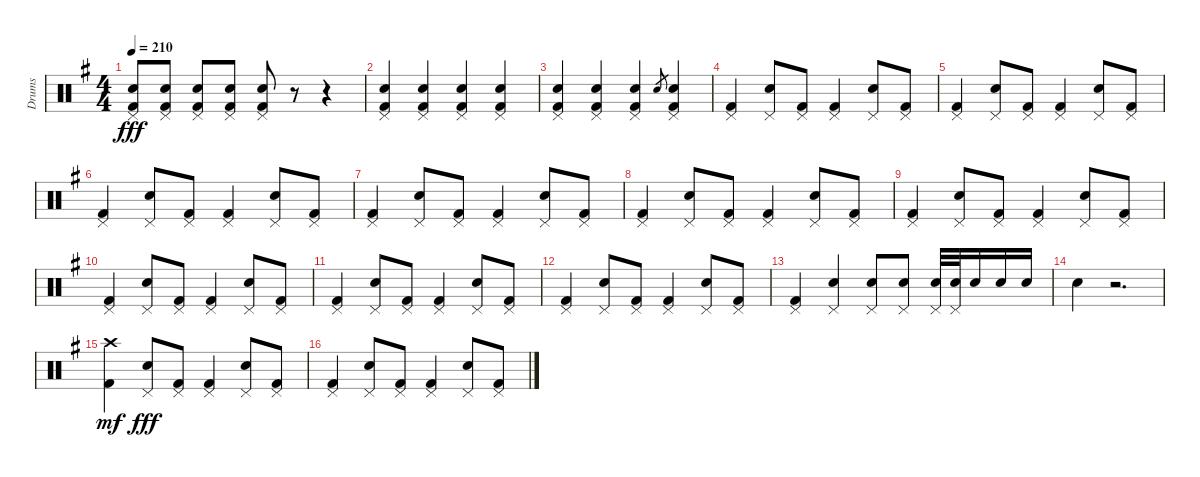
\track ("Drums" "Drums") {instrument percussion}
\staff {score}
\articulation defaults
\ts (4 4)
\tempo 210
\clef neutral
\ks g
("Electric Snare (hit)" "Kick (hit) 2" "Pedal Hi-Hat (hit)").8{dy fff} ("Electric Snare (hit)" "Kick (hit) 2" "Pedal Hi-Hat (hit)").8 ("Electric Snare (hit)" "Kick (hit) 2" "Pedal Hi-Hat (hit)").8 ("Electric Snare (hit)" "Kick (hit) 2" "Pedal Hi-Hat (hit)").8 ("Electric Snare (hit)" "Kick (hit) 2" "Pedal Hi-Hat (hit)").8 r.8 r.4 |
("Electric Snare (hit)" "Kick (hit) 2" "Pedal Hi-Hat (hit)").4 ("Electric Snare (hit)" "Kick (hit) 2" "Pedal Hi-Hat (hit)").4 ("Electric Snare (hit)" "Kick (hit) 2" "Pedal Hi-Hat (hit)").4 ("Electric Snare (hit)" "Kick (hit) 2" "Pedal Hi-Hat (hit)").4 |
("Electric Snare (hit)" "Kick (hit) 2" "Pedal Hi-Hat (hit)").4 ("Electric Snare (hit)" "Kick (hit) 2" "Pedal Hi-Hat (hit)").4 ("Electric Snare (hit)" "Kick (hit) 2" "Pedal Hi-Hat (hit)").4 "Electric Snare (hit)".8{gr} ("Electric Snare (hit)" "Kick (hit) 2" "Pedal Hi-Hat (hit)").4 |
("Kick (hit) 2" "Pedal Hi-Hat (hit)").4 ("Electric Snare (hit)" "Pedal Hi-Hat (hit)").8 ("Kick (hit) 2" "Pedal Hi-Hat (hit)").8 ("Kick (hit) 2" "Pedal Hi-Hat (hit)").4 ("Electric Snare (hit)" "Pedal Hi-Hat (hit)").8 ("Kick (hit) 2" "Pedal Hi-Hat (hit)").8 |
("Kick (hit) 2" "Pedal Hi-Hat (hit)").4 ("Electric Snare (hit)" "Pedal Hi-Hat (hit)").8 ("Kick (hit) 2" "Pedal Hi-Hat (hit)").8 ("Kick (hit) 2" "Pedal Hi-Hat (hit)").4 ("Electric Snare (hit)" "Pedal Hi-Hat (hit)").8 ("Kick (hit) 2" "Pedal Hi-Hat (hit)").8 |
("Kick (hit) 2" "Pedal Hi-Hat (hit)").4 ("Electric Snare (hit)" "Pedal Hi-Hat (hit)").8 ("Kick (hit) 2" "Pedal Hi-Hat (hit)").8 ("Kick (hit) 2" "Pedal Hi-Hat (hit)").4 ("Electric Snare (hit)" "Pedal Hi-Hat (hit)").8 ("Kick (hit) 2" "Pedal Hi-Hat (hit)").8 |
("Kick (hit) 2" "Pedal Hi-Hat (hit)").4 ("Electric Snare (hit)" "Pedal Hi-Hat (hit)").8 ("Kick (hit) 2" "Pedal Hi-Hat (hit)").8 ("Kick (hit) 2" "Pedal Hi-Hat (hit)").4 ("Electric Snare (hit)" "Pedal Hi-Hat (hit)").8 ("Kick (hit) 2" "Pedal Hi-Hat (hit)").8 |
("Kick (hit) 2" "Pedal Hi-Hat (hit)").4 ("Electric Snare (hit)" "Pedal Hi-Hat (hit)").8 ("Kick (hit) 2" "Pedal Hi-Hat (hit)").8 ("Kick (hit) 2" "Pedal Hi-Hat (hit)").4 ("Electric Snare (hit)" "Pedal Hi-Hat (hit)").8 ("Kick (hit) 2" "Pedal Hi-Hat (hit)").8 |
("Kick (hit) 2" "Pedal Hi-Hat (hit)").4 ("Electric Snare (hit)" "Pedal Hi-Hat (hit)").8 ("Kick (hit) 2" "Pedal Hi-Hat (hit)").8 ("Kick (hit) 2" "Pedal Hi-Hat (hit)").4 ("Electric Snare (hit)" "Pedal Hi-Hat (hit)").8 ("Kick (hit) 2" "Pedal Hi-Hat (hit)").8 |
("Kick (hit) 2" "Pedal Hi-Hat (hit)").4 ("Electric Snare (hit)" "Pedal Hi-Hat (hit)").8 ("Kick (hit) 2" "Pedal Hi-Hat (hit)").8 ("Kick (hit) 2" "Pedal Hi-Hat (hit)").4 ("Electric Snare (hit)" "Pedal Hi-Hat (hit)").8 ("Kick (hit) 2" "Pedal Hi-Hat (hit)").8 |
("Kick (hit) 2" "Pedal Hi-Hat (hit)").4 ("Electric Snare (hit)" "Pedal Hi-Hat (hit)").8 ("Kick (hit) 2" "Pedal Hi-Hat (hit)").8 ("Kick (hit) 2" "Pedal Hi-Hat (hit)").4 ("Electric Snare (hit)" "Pedal Hi-Hat (hit)").8 ("Kick (hit) 2" "Pedal Hi-Hat (hit)").8 |
("Kick (hit) 2" "Pedal Hi-Hat (hit)").4 ("Electric Snare (hit)" "Pedal Hi-Hat (hit)").8 ("Kick (hit) 2" "Pedal Hi-Hat (hit)").8 ("Kick (hit) 2" "Pedal Hi-Hat (hit)").4 ("Electric Snare (hit)" "Pedal Hi-Hat (hit)").8 ("Kick (hit) 2" "Pedal Hi-Hat (hit)").8 |
("Kick (hit) 2" "Pedal Hi-Hat (hit)").4 ("Electric Snare (hit)" "Pedal Hi-Hat (hit)").4 ("Electric Snare (hit)" "Pedal Hi-Hat (hit)").8 ("Electric Snare (hit)" "Pedal Hi-Hat (hit)").8 ("Electric Snare (hit)" "Pedal Hi-Hat (hit)").32 ("Electric Snare (hit)" "Pedal Hi-Hat (hit)").32 "Electric Snare (hit)".16 "Electric Snare (hit)".16 "Electric Snare (hit)".16 |
"Electric Snare (hit)".4 r.2{d} |
("Kick (hit) 2" "Crash high (hit)").4{dy mf} ("Electric Snare (hit)" "Pedal Hi-Hat (hit)").8{dy fff} ("Kick (hit) 2" "Pedal Hi-Hat (hit)").8 ("Kick (hit) 2" "Pedal Hi-Hat (hit)").4 ("Electric Snare (hit)" "Pedal Hi-Hat (hit)").8 ("Kick (hit) 2" "Pedal Hi-Hat (hit)").8 |
("Kick (hit) 2" "Pedal Hi-Hat (hit)").4 ("Electric Snare (hit)" "Pedal Hi-Hat (hit)").8 ("Kick (hit) 2" "Pedal Hi-Hat (hit)").8 ("Kick (hit) 2" "Pedal Hi-Hat (hit)").4 ("Electric Snare (hit)" "Pedal Hi-Hat (hit)").8 ("Kick (hit) 2" "Pedal Hi-Hat (hit)").8
